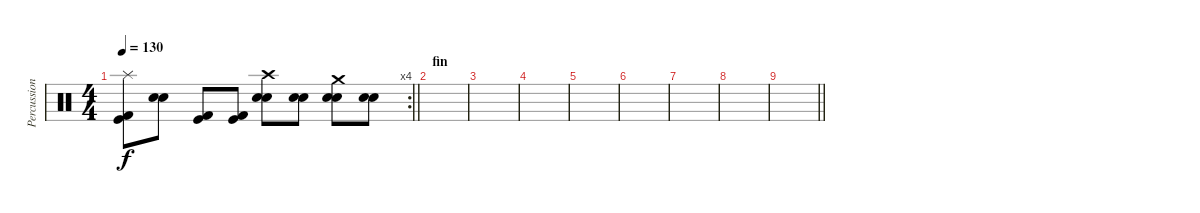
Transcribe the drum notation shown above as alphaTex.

\track ("Percussions" "Percussion") {instrument percussion}
\staff {score}
\articulation defaults
\rc 4
\ts (4 4)
\tempo 130
\clef neutral
\barLineRight lightlight
\ks c
("Splash (hit)" "Kick (hit)" "Kick (hit) 2").8{dy f} ("Snare (hit) 2" "Electric Snare (hit)").8 ("Kick (hit) 2" "Kick (hit)").8 ("Kick (hit)" "Kick (hit) 2").8 ("Crash high (hit)" "Snare (hit) 2" "Electric Snare (hit)").8 ("Snare (hit) 2" "Electric Snare (hit)").8 ("Crash medium (hit)" "Snare (hit) 2" "Electric Snare (hit)").8 ("Snare (hit) 2" "Electric Snare (hit)").8 |
\section ("" "fin")
|
|
|
|
|
|
|
\barLineRight lightlight
